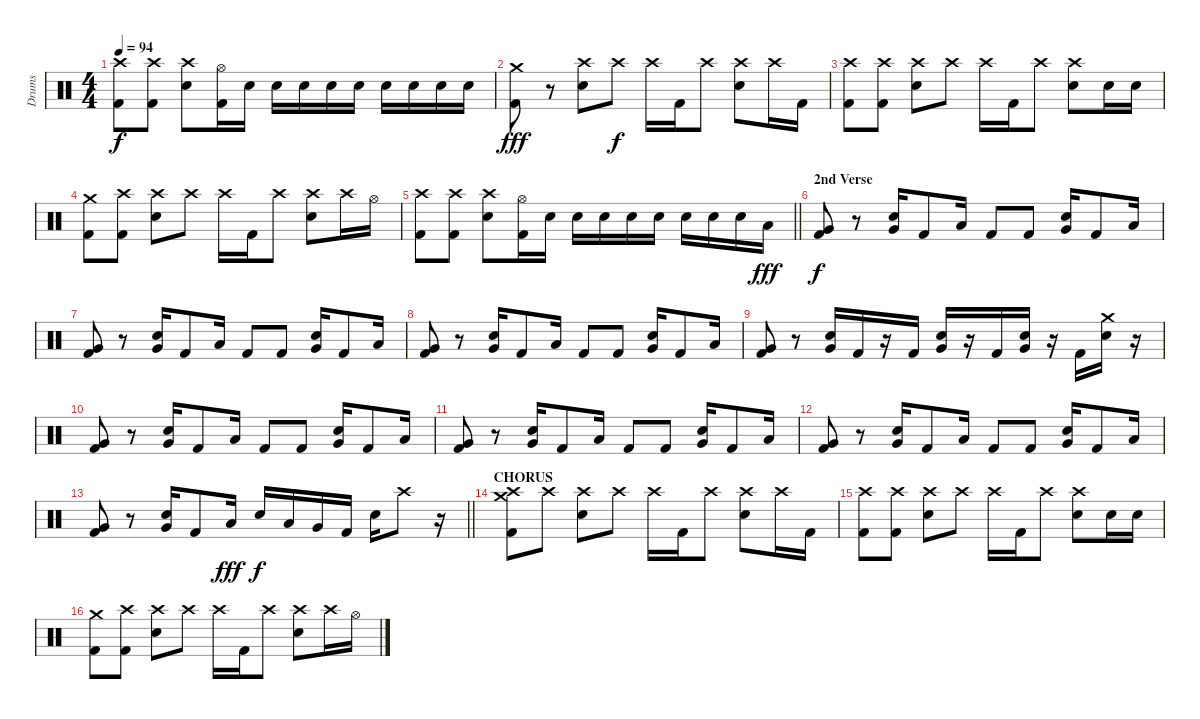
\track ("Drums" "Drums") {instrument percussion}
\staff {score}
\articulation defaults
\ts (4 4)
\tempo 94
\clef neutral
\ks c
("Crash high (hit)" "Kick (hit) 2").8{dy f} ("Crash high (hit)" "Kick (hit) 2").8 ("Crash high (hit)" "Electric Snare (hit)").8 ("Hi-Hat (open)" "Kick (hit) 2").16 "Electric Snare (hit)".16 "Electric Snare (hit)".16 "Electric Snare (hit)".16 "Electric Snare (hit)".16 "Electric Snare (hit)".16 "Electric Snare (hit)".16 "Electric Snare (hit)".16 "Electric Snare (hit)".16 "Electric Snare (hit)".16 |
("Crash medium (hit)" "Kick (hit) 2").8{dy fff} r.8 ("Crash high (hit)" "Electric Snare (hit)").8 "Crash high (hit)".8{dy f} "Crash high (hit)".16 "Kick (hit) 2".16 "Crash high (hit)".8 ("Crash high (hit)" "Electric Snare (hit)").8 "Crash high (hit)".16 "Kick (hit) 2".16 |
("Crash high (hit)" "Kick (hit) 2").8 ("Crash high (hit)" "Kick (hit) 2").8 ("Crash high (hit)" "Electric Snare (hit)").8 "Crash high (hit)".8 "Crash high (hit)".16 "Kick (hit) 2".16 "Crash high (hit)".8 ("Crash high (hit)" "Electric Snare (hit)").8 "Electric Snare (hit)".16 "Electric Snare (hit)".16 |
("Crash medium (hit)" "Kick (hit) 2").8 ("Crash high (hit)" "Kick (hit) 2").8 ("Crash high (hit)" "Electric Snare (hit)").8 "Crash high (hit)".8 "Crash high (hit)".16 "Kick (hit) 2".16 "Crash high (hit)".8 ("Crash high (hit)" "Electric Snare (hit)").8 "Crash high (hit)".16 "Hi-Hat (open)".16 |
\barLineRight lightlight
("Crash high (hit)" "Kick (hit) 2").8 ("Crash high (hit)" "Kick (hit) 2").8 ("Crash high (hit)" "Electric Snare (hit)").8 ("Hi-Hat (open)" "Kick (hit) 2").16 "Electric Snare (hit)".16 "Electric Snare (hit)".16 "Electric Snare (hit)".16 "Electric Snare (hit)".16 "Electric Snare (hit)".16 "Electric Snare (hit)".16 "Electric Snare (hit)".16 "Electric Snare (hit)".16 "Low Tom (hit)".16{dy fff} |
\section ("" "2nd Verse")
("Very Low Tom (hit)" "Kick (hit) 2").8{dy f} r.8 ("Electric Snare (hit)" "Very Low Tom (hit)").16 "Kick (hit) 2".8 "Low Tom (hit)".16 "Kick (hit) 2".8 "Kick (hit) 2".8 ("Electric Snare (hit)" "Very Low Tom (hit)").16 "Kick (hit) 2".8 "Low Tom (hit)".16 |
("Very Low Tom (hit)" "Kick (hit) 2").8 r.8 ("Electric Snare (hit)" "Very Low Tom (hit)").16 "Kick (hit) 2".8 "Low Tom (hit)".16 "Kick (hit) 2".8 "Kick (hit) 2".8 ("Electric Snare (hit)" "Very Low Tom (hit)").16 "Kick (hit) 2".8 "Low Tom (hit)".16 |
("Very Low Tom (hit)" "Kick (hit) 2").8 r.8 ("Electric Snare (hit)" "Very Low Tom (hit)").16 "Kick (hit) 2".8 "Low Tom (hit)".16 "Kick (hit) 2".8 "Kick (hit) 2".8 ("Electric Snare (hit)" "Very Low Tom (hit)").16 "Kick (hit) 2".8 "Low Tom (hit)".16 |
("Very Low Tom (hit)" "Kick (hit) 2").8 r.8 ("Electric Snare (hit)" "Very Low Tom (hit)").16 "Kick (hit) 2".16 r.16 "Kick (hit) 2".16 ("Electric Snare (hit)" "Very Low Tom (hit)").16 r.16 "Kick (hit) 2".16 ("Electric Snare (hit)" "Very Low Tom (hit)").16 r.16 "Kick (hit) 2".16 ("Crash medium (hit)" "Electric Snare (hit)").16 r.16 |
("Very Low Tom (hit)" "Kick (hit) 2").8 r.8 ("Electric Snare (hit)" "Very Low Tom (hit)").16 "Kick (hit) 2".8 "Low Tom (hit)".16 "Kick (hit) 2".8 "Kick (hit) 2".8 ("Electric Snare (hit)" "Very Low Tom (hit)").16 "Kick (hit) 2".8 "Low Tom (hit)".16 |
("Very Low Tom (hit)" "Kick (hit) 2").8 r.8 ("Electric Snare (hit)" "Very Low Tom (hit)").16 "Kick (hit) 2".8 "Low Tom (hit)".16 "Kick (hit) 2".8 "Kick (hit) 2".8 ("Electric Snare (hit)" "Very Low Tom (hit)").16 "Kick (hit) 2".8 "Low Tom (hit)".16 |
("Very Low Tom (hit)" "Kick (hit) 2").8 r.8 ("Electric Snare (hit)" "Very Low Tom (hit)").16 "Kick (hit) 2".8 "Low Tom (hit)".16 "Kick (hit) 2".8 "Kick (hit) 2".8 ("Electric Snare (hit)" "Very Low Tom (hit)").16 "Kick (hit) 2".8 "Low Tom (hit)".16 |
\barLineRight lightlight
("Very Low Tom (hit)" "Kick (hit) 2").8 r.8 ("Electric Snare (hit)" "Very Low Tom (hit)").16 "Kick (hit) 2".8 "Low Tom (hit)".16{dy fff} "Electric Snare (hit)".16{dy f} "Low Tom (hit)".16 "Very Low Tom (hit)".16 "Kick (hit) 2".16 "Electric Snare (hit)".16 "Crash high (hit)".8 r.16 |
\section ("" "CHORUS")
("Crash medium (hit)" "Crash high (hit)" "Kick (hit) 2").8 "Crash high (hit)".8 ("Crash high (hit)" "Electric Snare (hit)").8 "Crash high (hit)".8 "Crash high (hit)".16 "Kick (hit) 2".16 "Crash high (hit)".8 ("Crash high (hit)" "Electric Snare (hit)").8 "Crash high (hit)".16 "Kick (hit) 2".16 |
("Crash high (hit)" "Kick (hit) 2").8 ("Crash high (hit)" "Kick (hit) 2").8 ("Crash high (hit)" "Electric Snare (hit)").8 "Crash high (hit)".8 "Crash high (hit)".16 "Kick (hit) 2".16 "Crash high (hit)".8 ("Crash high (hit)" "Electric Snare (hit)").8 "Electric Snare (hit)".16 "Electric Snare (hit)".16 |
("Crash medium (hit)" "Kick (hit) 2").8 ("Crash high (hit)" "Kick (hit) 2").8 ("Crash high (hit)" "Electric Snare (hit)").8 "Crash high (hit)".8 "Crash high (hit)".16 "Kick (hit) 2".16 "Crash high (hit)".8 ("Crash high (hit)" "Electric Snare (hit)").8 "Crash high (hit)".16 "Hi-Hat (open)".16
